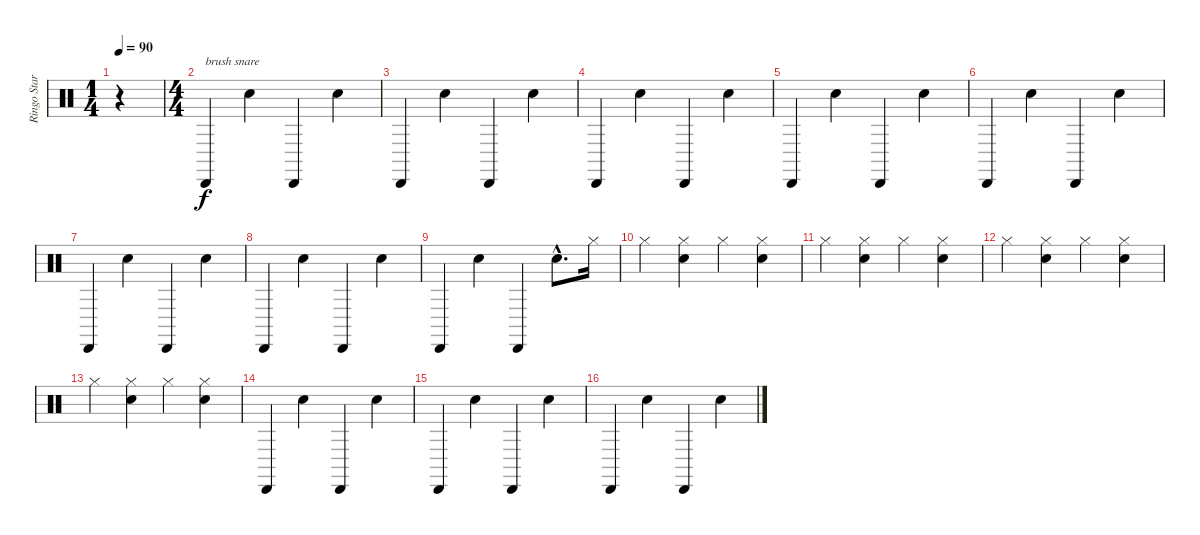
\track ("Ringo Starr" "Ringo Star") {instrument percussion}
\staff {score}
\articulation defaults
\ts (1 4)
\tempo 90
\clef neutral
\ks c
r.4{dy f} |
\ts (4 4)
"Cabasa (hit)".4{txt "brush snare"} "Snare (hit) 2".4 "Cabasa (hit)".4 "Snare (hit) 2".4 |
"Cabasa (hit)".4 "Snare (hit) 2".4 "Cabasa (hit)".4 "Snare (hit) 2".4 |
"Cabasa (hit)".4 "Snare (hit) 2".4 "Cabasa (hit)".4 "Snare (hit) 2".4 |
"Cabasa (hit)".4 "Snare (hit) 2".4 "Cabasa (hit)".4 "Snare (hit) 2".4 |
"Cabasa (hit)".4 "Snare (hit) 2".4 "Cabasa (hit)".4 "Snare (hit) 2".4 |
"Cabasa (hit)".4 "Snare (hit) 2".4 "Cabasa (hit)".4 "Snare (hit) 2".4 |
"Cabasa (hit)".4 "Snare (hit) 2".4 "Cabasa (hit)".4 "Snare (hit) 2".4 |
"Cabasa (hit)".4 "Snare (hit) 2".4 "Cabasa (hit)".4 "Snare (hit) 2"{hac}.8{d} "Hi-Hat (closed)".16 |
"Hi-Hat (closed)".4 ("Hi-Hat (closed)" "Snare (hit) 2").4 "Hi-Hat (closed)".4 ("Hi-Hat (closed)" "Snare (hit) 2").4 |
"Hi-Hat (closed)".4 ("Hi-Hat (closed)" "Snare (hit) 2").4 "Hi-Hat (closed)".4 ("Hi-Hat (closed)" "Snare (hit) 2").4 |
"Hi-Hat (closed)".4 ("Hi-Hat (closed)" "Snare (hit) 2").4 "Hi-Hat (closed)".4 ("Hi-Hat (closed)" "Snare (hit) 2").4 |
"Hi-Hat (closed)".4 ("Hi-Hat (closed)" "Snare (hit) 2").4 "Hi-Hat (closed)".4 ("Hi-Hat (closed)" "Snare (hit) 2").4 |
"Cabasa (hit)".4 "Snare (hit) 2".4 "Cabasa (hit)".4 "Snare (hit) 2".4 |
"Cabasa (hit)".4 "Snare (hit) 2".4 "Cabasa (hit)".4 "Snare (hit) 2".4 |
"Cabasa (hit)".4 "Snare (hit) 2".4 "Cabasa (hit)".4 "Snare (hit) 2".4
